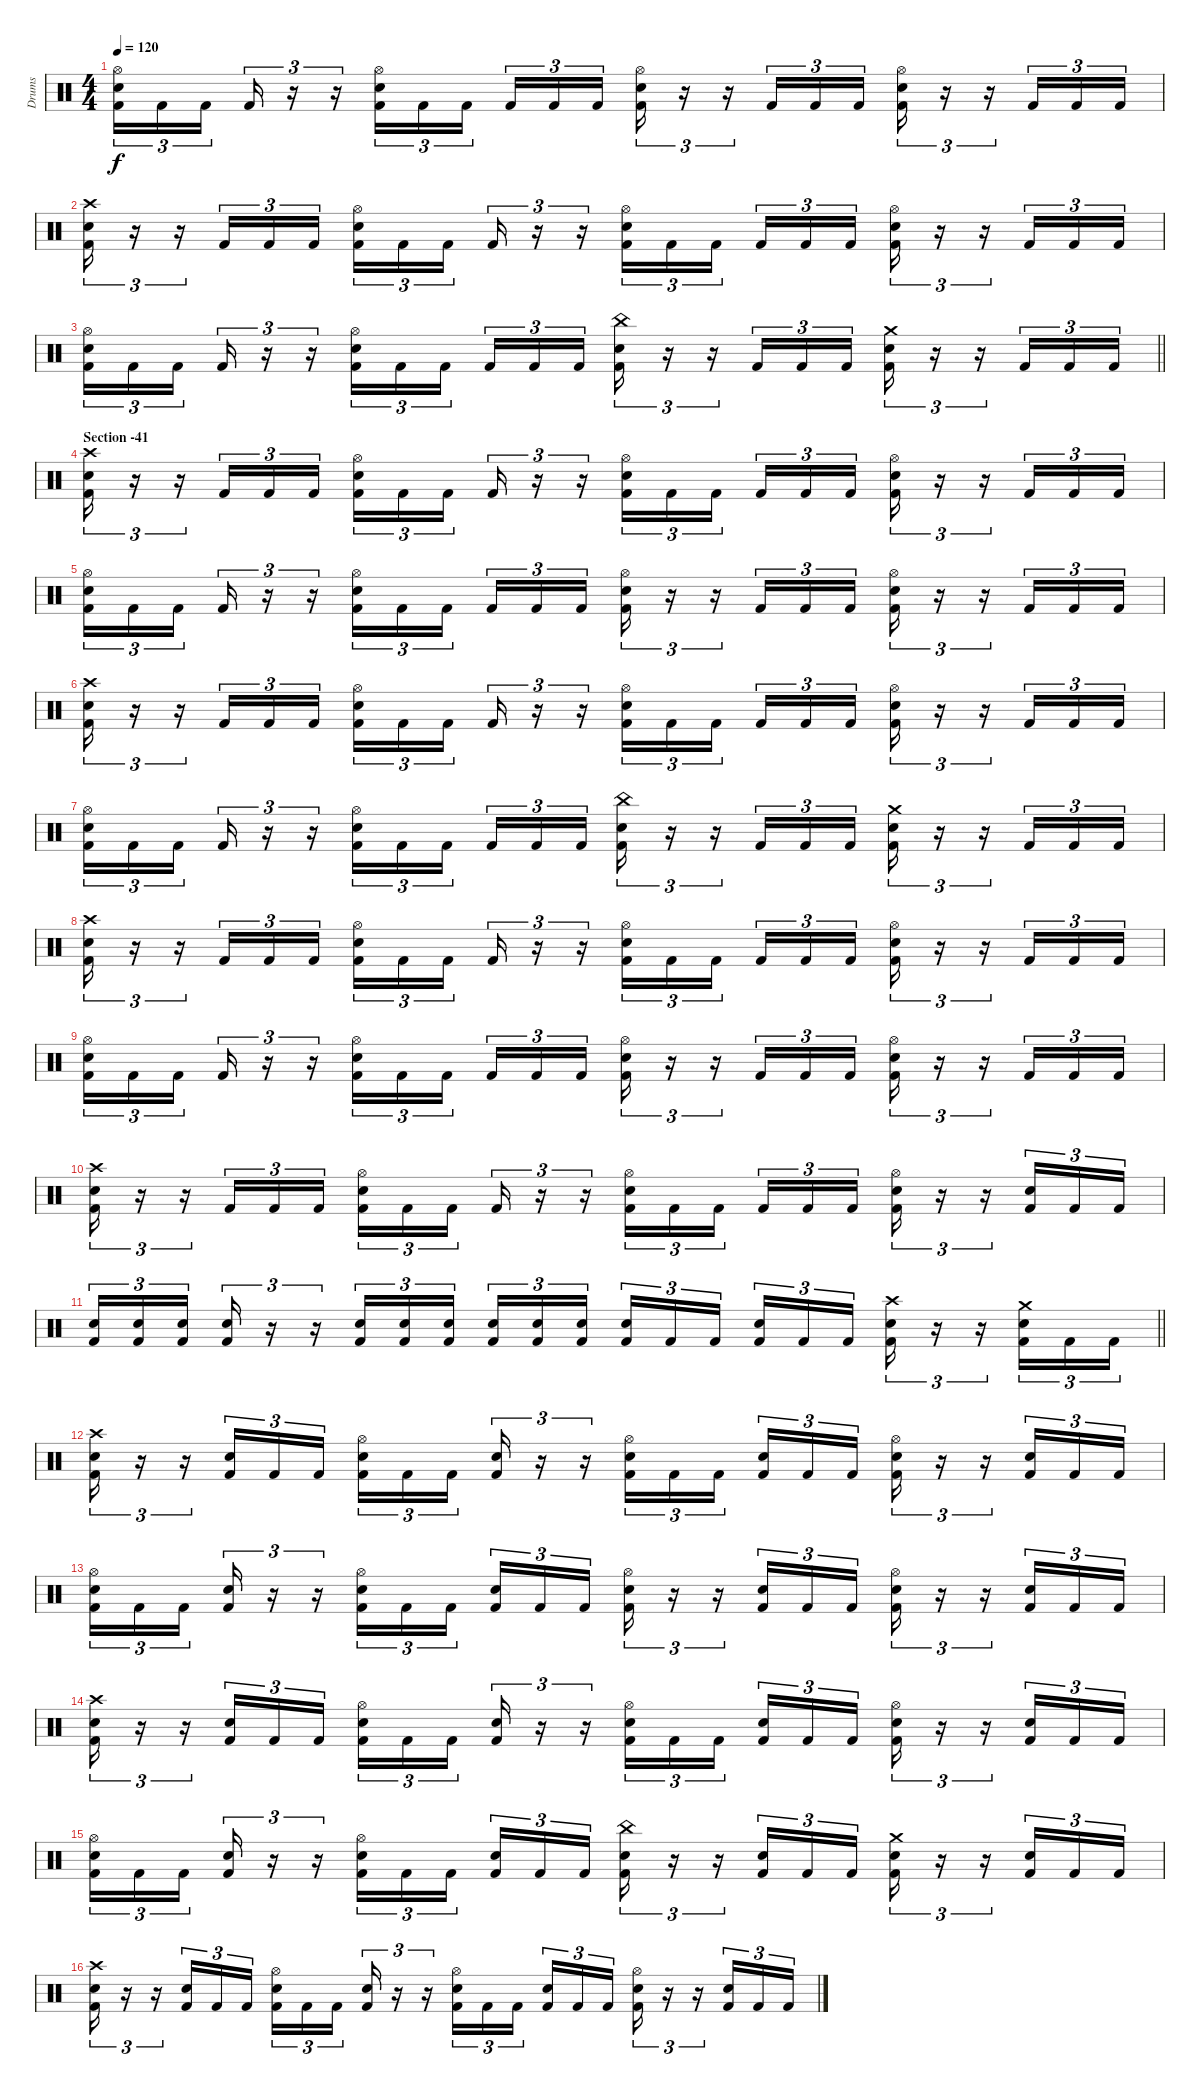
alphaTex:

\track ("Drums" "Drums") {instrument percussion}
\staff {score}
\articulation defaults
\ts (4 4)
\tempo 120
\clef neutral
\ks c
("Hi-Hat (open)" "Snare (hit) 2" "Kick (hit) 2").16{tu (3 2) dy f} "Kick (hit) 2".16{tu (3 2)} "Kick (hit) 2".16{tu (3 2) beam splitsecondary} "Kick (hit) 2".16{tu (3 2)} r.16{tu (3 2)} r.16{tu (3 2)} ("Hi-Hat (open)" "Snare (hit) 2" "Kick (hit) 2").16{tu (3 2)} "Kick (hit) 2".16{tu (3 2)} "Kick (hit) 2".16{tu (3 2) beam splitsecondary} "Kick (hit) 2".16{tu (3 2)} "Kick (hit) 2".16{tu (3 2)} "Kick (hit) 2".16{tu (3 2)} ("Hi-Hat (open)" "Snare (hit) 2" "Kick (hit) 2").16{tu (3 2)} r.16{tu (3 2)} r.16{tu (3 2)} "Kick (hit) 2".16{tu (3 2)} "Kick (hit) 2".16{tu (3 2)} "Kick (hit) 2".16{tu (3 2)} ("Hi-Hat (open)" "Snare (hit) 2" "Kick (hit) 2").16{tu (3 2)} r.16{tu (3 2)} r.16{tu (3 2)} "Kick (hit) 2".16{tu (3 2)} "Kick (hit) 2".16{tu (3 2)} "Kick (hit) 2".16{tu (3 2)} |
("Crash high (hit)" "Snare (hit) 2" "Kick (hit) 2").16{tu (3 2)} r.16{tu (3 2)} r.16{tu (3 2)} "Kick (hit) 2".16{tu (3 2)} "Kick (hit) 2".16{tu (3 2)} "Kick (hit) 2".16{tu (3 2)} ("Hi-Hat (open)" "Snare (hit) 2" "Kick (hit) 2").16{tu (3 2)} "Kick (hit) 2".16{tu (3 2)} "Kick (hit) 2".16{tu (3 2) beam splitsecondary} "Kick (hit) 2".16{tu (3 2)} r.16{tu (3 2)} r.16{tu (3 2)} ("Hi-Hat (open)" "Snare (hit) 2" "Kick (hit) 2").16{tu (3 2)} "Kick (hit) 2".16{tu (3 2)} "Kick (hit) 2".16{tu (3 2) beam splitsecondary} "Kick (hit) 2".16{tu (3 2)} "Kick (hit) 2".16{tu (3 2)} "Kick (hit) 2".16{tu (3 2)} ("Hi-Hat (open)" "Snare (hit) 2" "Kick (hit) 2").16{tu (3 2)} r.16{tu (3 2)} r.16{tu (3 2)} "Kick (hit) 2".16{tu (3 2)} "Kick (hit) 2".16{tu (3 2)} "Kick (hit) 2".16{tu (3 2)} |
\barLineRight lightlight
("Hi-Hat (open)" "Snare (hit) 2" "Kick (hit) 2").16{tu (3 2)} "Kick (hit) 2".16{tu (3 2)} "Kick (hit) 2".16{tu (3 2) beam splitsecondary} "Kick (hit) 2".16{tu (3 2)} r.16{tu (3 2)} r.16{tu (3 2)} ("Hi-Hat (open)" "Snare (hit) 2" "Kick (hit) 2").16{tu (3 2)} "Kick (hit) 2".16{tu (3 2)} "Kick (hit) 2".16{tu (3 2) beam splitsecondary} "Kick (hit) 2".16{tu (3 2)} "Kick (hit) 2".16{tu (3 2)} "Kick (hit) 2".16{tu (3 2)} ("China (hit)" "Snare (hit) 2" "Kick (hit) 2").16{tu (3 2)} r.16{tu (3 2)} r.16{tu (3 2)} "Kick (hit) 2".16{tu (3 2)} "Kick (hit) 2".16{tu (3 2)} "Kick (hit) 2".16{tu (3 2)} ("Crash medium (hit)" "Snare (hit) 2" "Kick (hit) 2").16{tu (3 2)} r.16{tu (3 2)} r.16{tu (3 2)} "Kick (hit) 2".16{tu (3 2)} "Kick (hit) 2".16{tu (3 2)} "Kick (hit) 2".16{tu (3 2)} |
\section ("" "Section -41")
("Crash high (hit)" "Snare (hit) 2" "Kick (hit) 2").16{tu (3 2)} r.16{tu (3 2)} r.16{tu (3 2)} "Kick (hit) 2".16{tu (3 2)} "Kick (hit) 2".16{tu (3 2)} "Kick (hit) 2".16{tu (3 2)} ("Hi-Hat (open)" "Snare (hit) 2" "Kick (hit) 2").16{tu (3 2)} "Kick (hit) 2".16{tu (3 2)} "Kick (hit) 2".16{tu (3 2) beam splitsecondary} "Kick (hit) 2".16{tu (3 2)} r.16{tu (3 2)} r.16{tu (3 2)} ("Hi-Hat (open)" "Snare (hit) 2" "Kick (hit) 2").16{tu (3 2)} "Kick (hit) 2".16{tu (3 2)} "Kick (hit) 2".16{tu (3 2) beam splitsecondary} "Kick (hit) 2".16{tu (3 2)} "Kick (hit) 2".16{tu (3 2)} "Kick (hit) 2".16{tu (3 2)} ("Hi-Hat (open)" "Snare (hit) 2" "Kick (hit) 2").16{tu (3 2)} r.16{tu (3 2)} r.16{tu (3 2)} "Kick (hit) 2".16{tu (3 2)} "Kick (hit) 2".16{tu (3 2)} "Kick (hit) 2".16{tu (3 2)} |
("Hi-Hat (open)" "Snare (hit) 2" "Kick (hit) 2").16{tu (3 2)} "Kick (hit) 2".16{tu (3 2)} "Kick (hit) 2".16{tu (3 2) beam splitsecondary} "Kick (hit) 2".16{tu (3 2)} r.16{tu (3 2)} r.16{tu (3 2)} ("Hi-Hat (open)" "Snare (hit) 2" "Kick (hit) 2").16{tu (3 2)} "Kick (hit) 2".16{tu (3 2)} "Kick (hit) 2".16{tu (3 2) beam splitsecondary} "Kick (hit) 2".16{tu (3 2)} "Kick (hit) 2".16{tu (3 2)} "Kick (hit) 2".16{tu (3 2)} ("Hi-Hat (open)" "Snare (hit) 2" "Kick (hit) 2").16{tu (3 2)} r.16{tu (3 2)} r.16{tu (3 2)} "Kick (hit) 2".16{tu (3 2)} "Kick (hit) 2".16{tu (3 2)} "Kick (hit) 2".16{tu (3 2)} ("Hi-Hat (open)" "Snare (hit) 2" "Kick (hit) 2").16{tu (3 2)} r.16{tu (3 2)} r.16{tu (3 2)} "Kick (hit) 2".16{tu (3 2)} "Kick (hit) 2".16{tu (3 2)} "Kick (hit) 2".16{tu (3 2)} |
("Crash high (hit)" "Snare (hit) 2" "Kick (hit) 2").16{tu (3 2)} r.16{tu (3 2)} r.16{tu (3 2)} "Kick (hit) 2".16{tu (3 2)} "Kick (hit) 2".16{tu (3 2)} "Kick (hit) 2".16{tu (3 2)} ("Hi-Hat (open)" "Snare (hit) 2" "Kick (hit) 2").16{tu (3 2)} "Kick (hit) 2".16{tu (3 2)} "Kick (hit) 2".16{tu (3 2) beam splitsecondary} "Kick (hit) 2".16{tu (3 2)} r.16{tu (3 2)} r.16{tu (3 2)} ("Hi-Hat (open)" "Snare (hit) 2" "Kick (hit) 2").16{tu (3 2)} "Kick (hit) 2".16{tu (3 2)} "Kick (hit) 2".16{tu (3 2) beam splitsecondary} "Kick (hit) 2".16{tu (3 2)} "Kick (hit) 2".16{tu (3 2)} "Kick (hit) 2".16{tu (3 2)} ("Hi-Hat (open)" "Snare (hit) 2" "Kick (hit) 2").16{tu (3 2)} r.16{tu (3 2)} r.16{tu (3 2)} "Kick (hit) 2".16{tu (3 2)} "Kick (hit) 2".16{tu (3 2)} "Kick (hit) 2".16{tu (3 2)} |
("Hi-Hat (open)" "Snare (hit) 2" "Kick (hit) 2").16{tu (3 2)} "Kick (hit) 2".16{tu (3 2)} "Kick (hit) 2".16{tu (3 2) beam splitsecondary} "Kick (hit) 2".16{tu (3 2)} r.16{tu (3 2)} r.16{tu (3 2)} ("Hi-Hat (open)" "Snare (hit) 2" "Kick (hit) 2").16{tu (3 2)} "Kick (hit) 2".16{tu (3 2)} "Kick (hit) 2".16{tu (3 2) beam splitsecondary} "Kick (hit) 2".16{tu (3 2)} "Kick (hit) 2".16{tu (3 2)} "Kick (hit) 2".16{tu (3 2)} ("China (hit)" "Snare (hit) 2" "Kick (hit) 2").16{tu (3 2)} r.16{tu (3 2)} r.16{tu (3 2)} "Kick (hit) 2".16{tu (3 2)} "Kick (hit) 2".16{tu (3 2)} "Kick (hit) 2".16{tu (3 2)} ("Crash medium (hit)" "Snare (hit) 2" "Kick (hit) 2").16{tu (3 2)} r.16{tu (3 2)} r.16{tu (3 2)} "Kick (hit) 2".16{tu (3 2)} "Kick (hit) 2".16{tu (3 2)} "Kick (hit) 2".16{tu (3 2)} |
("Crash high (hit)" "Snare (hit) 2" "Kick (hit) 2").16{tu (3 2)} r.16{tu (3 2)} r.16{tu (3 2)} "Kick (hit) 2".16{tu (3 2)} "Kick (hit) 2".16{tu (3 2)} "Kick (hit) 2".16{tu (3 2)} ("Hi-Hat (open)" "Snare (hit) 2" "Kick (hit) 2").16{tu (3 2)} "Kick (hit) 2".16{tu (3 2)} "Kick (hit) 2".16{tu (3 2) beam splitsecondary} "Kick (hit) 2".16{tu (3 2)} r.16{tu (3 2)} r.16{tu (3 2)} ("Hi-Hat (open)" "Snare (hit) 2" "Kick (hit) 2").16{tu (3 2)} "Kick (hit) 2".16{tu (3 2)} "Kick (hit) 2".16{tu (3 2) beam splitsecondary} "Kick (hit) 2".16{tu (3 2)} "Kick (hit) 2".16{tu (3 2)} "Kick (hit) 2".16{tu (3 2)} ("Hi-Hat (open)" "Snare (hit) 2" "Kick (hit) 2").16{tu (3 2)} r.16{tu (3 2)} r.16{tu (3 2)} "Kick (hit) 2".16{tu (3 2)} "Kick (hit) 2".16{tu (3 2)} "Kick (hit) 2".16{tu (3 2)} |
("Hi-Hat (open)" "Snare (hit) 2" "Kick (hit) 2").16{tu (3 2)} "Kick (hit) 2".16{tu (3 2)} "Kick (hit) 2".16{tu (3 2) beam splitsecondary} "Kick (hit) 2".16{tu (3 2)} r.16{tu (3 2)} r.16{tu (3 2)} ("Hi-Hat (open)" "Snare (hit) 2" "Kick (hit) 2").16{tu (3 2)} "Kick (hit) 2".16{tu (3 2)} "Kick (hit) 2".16{tu (3 2) beam splitsecondary} "Kick (hit) 2".16{tu (3 2)} "Kick (hit) 2".16{tu (3 2)} "Kick (hit) 2".16{tu (3 2)} ("Hi-Hat (open)" "Snare (hit) 2" "Kick (hit) 2").16{tu (3 2)} r.16{tu (3 2)} r.16{tu (3 2)} "Kick (hit) 2".16{tu (3 2)} "Kick (hit) 2".16{tu (3 2)} "Kick (hit) 2".16{tu (3 2)} ("Hi-Hat (open)" "Snare (hit) 2" "Kick (hit) 2").16{tu (3 2)} r.16{tu (3 2)} r.16{tu (3 2)} "Kick (hit) 2".16{tu (3 2)} "Kick (hit) 2".16{tu (3 2)} "Kick (hit) 2".16{tu (3 2)} |
("Crash high (hit)" "Snare (hit) 2" "Kick (hit) 2").16{tu (3 2)} r.16{tu (3 2)} r.16{tu (3 2)} "Kick (hit) 2".16{tu (3 2)} "Kick (hit) 2".16{tu (3 2)} "Kick (hit) 2".16{tu (3 2)} ("Hi-Hat (open)" "Snare (hit) 2" "Kick (hit) 2").16{tu (3 2)} "Kick (hit) 2".16{tu (3 2)} "Kick (hit) 2".16{tu (3 2) beam splitsecondary} "Kick (hit) 2".16{tu (3 2)} r.16{tu (3 2)} r.16{tu (3 2)} ("Hi-Hat (open)" "Snare (hit) 2" "Kick (hit) 2").16{tu (3 2)} "Kick (hit) 2".16{tu (3 2)} "Kick (hit) 2".16{tu (3 2) beam splitsecondary} "Kick (hit) 2".16{tu (3 2)} "Kick (hit) 2".16{tu (3 2)} "Kick (hit) 2".16{tu (3 2)} ("Hi-Hat (open)" "Snare (hit) 2" "Kick (hit) 2").16{tu (3 2)} r.16{tu (3 2)} r.16{tu (3 2)} ("Snare (hit) 2" "Kick (hit) 2").16{tu (3 2)} "Kick (hit) 2".16{tu (3 2)} "Kick (hit) 2".16{tu (3 2)} |
\barLineRight lightlight
("Snare (hit) 2" "Kick (hit) 2").16{tu (3 2)} ("Snare (hit) 2" "Kick (hit) 2").16{tu (3 2)} ("Snare (hit) 2" "Kick (hit) 2").16{tu (3 2) beam splitsecondary} ("Snare (hit) 2" "Kick (hit) 2").16{tu (3 2)} r.16{tu (3 2)} r.16{tu (3 2)} ("Snare (hit) 2" "Kick (hit) 2").16{tu (3 2)} ("Snare (hit) 2" "Kick (hit) 2").16{tu (3 2)} ("Snare (hit) 2" "Kick (hit) 2").16{tu (3 2) beam splitsecondary} ("Snare (hit) 2" "Kick (hit) 2").16{tu (3 2)} ("Snare (hit) 2" "Kick (hit) 2").16{tu (3 2)} ("Snare (hit) 2" "Kick (hit) 2").16{tu (3 2)} ("Snare (hit) 2" "Kick (hit) 2").16{tu (3 2)} "Kick (hit) 2".16{tu (3 2)} "Kick (hit) 2".16{tu (3 2) beam splitsecondary} ("Snare (hit) 2" "Kick (hit) 2").16{tu (3 2)} "Kick (hit) 2".16{tu (3 2)} "Kick (hit) 2".16{tu (3 2)} ("Crash high (hit)" "Snare (hit) 2" "Kick (hit) 2").16{tu (3 2)} r.16{tu (3 2)} r.16{tu (3 2)} ("Crash medium (hit)" "Snare (hit) 2" "Kick (hit) 2").16{tu (3 2)} "Kick (hit) 2".16{tu (3 2)} "Kick (hit) 2".16{tu (3 2)} |
("Crash high (hit)" "Snare (hit) 2" "Kick (hit) 2").16{tu (3 2)} r.16{tu (3 2)} r.16{tu (3 2)} ("Snare (hit) 2" "Kick (hit) 2").16{tu (3 2)} "Kick (hit) 2".16{tu (3 2)} "Kick (hit) 2".16{tu (3 2)} ("Hi-Hat (open)" "Snare (hit) 2" "Kick (hit) 2").16{tu (3 2)} "Kick (hit) 2".16{tu (3 2)} "Kick (hit) 2".16{tu (3 2) beam splitsecondary} ("Snare (hit) 2" "Kick (hit) 2").16{tu (3 2)} r.16{tu (3 2)} r.16{tu (3 2)} ("Hi-Hat (open)" "Snare (hit) 2" "Kick (hit) 2").16{tu (3 2)} "Kick (hit) 2".16{tu (3 2)} "Kick (hit) 2".16{tu (3 2) beam splitsecondary} ("Snare (hit) 2" "Kick (hit) 2").16{tu (3 2)} "Kick (hit) 2".16{tu (3 2)} "Kick (hit) 2".16{tu (3 2)} ("Hi-Hat (open)" "Snare (hit) 2" "Kick (hit) 2").16{tu (3 2)} r.16{tu (3 2)} r.16{tu (3 2)} ("Snare (hit) 2" "Kick (hit) 2").16{tu (3 2)} "Kick (hit) 2".16{tu (3 2)} "Kick (hit) 2".16{tu (3 2)} |
("Hi-Hat (open)" "Snare (hit) 2" "Kick (hit) 2").16{tu (3 2)} "Kick (hit) 2".16{tu (3 2)} "Kick (hit) 2".16{tu (3 2) beam splitsecondary} ("Snare (hit) 2" "Kick (hit) 2").16{tu (3 2)} r.16{tu (3 2)} r.16{tu (3 2)} ("Hi-Hat (open)" "Snare (hit) 2" "Kick (hit) 2").16{tu (3 2)} "Kick (hit) 2".16{tu (3 2)} "Kick (hit) 2".16{tu (3 2) beam splitsecondary} ("Snare (hit) 2" "Kick (hit) 2").16{tu (3 2)} "Kick (hit) 2".16{tu (3 2)} "Kick (hit) 2".16{tu (3 2)} ("Hi-Hat (open)" "Snare (hit) 2" "Kick (hit) 2").16{tu (3 2)} r.16{tu (3 2)} r.16{tu (3 2)} ("Snare (hit) 2" "Kick (hit) 2").16{tu (3 2)} "Kick (hit) 2".16{tu (3 2)} "Kick (hit) 2".16{tu (3 2)} ("Hi-Hat (open)" "Snare (hit) 2" "Kick (hit) 2").16{tu (3 2)} r.16{tu (3 2)} r.16{tu (3 2)} ("Snare (hit) 2" "Kick (hit) 2").16{tu (3 2)} "Kick (hit) 2".16{tu (3 2)} "Kick (hit) 2".16{tu (3 2)} |
("Crash high (hit)" "Snare (hit) 2" "Kick (hit) 2").16{tu (3 2)} r.16{tu (3 2)} r.16{tu (3 2)} ("Snare (hit) 2" "Kick (hit) 2").16{tu (3 2)} "Kick (hit) 2".16{tu (3 2)} "Kick (hit) 2".16{tu (3 2)} ("Hi-Hat (open)" "Snare (hit) 2" "Kick (hit) 2").16{tu (3 2)} "Kick (hit) 2".16{tu (3 2)} "Kick (hit) 2".16{tu (3 2) beam splitsecondary} ("Snare (hit) 2" "Kick (hit) 2").16{tu (3 2)} r.16{tu (3 2)} r.16{tu (3 2)} ("Hi-Hat (open)" "Snare (hit) 2" "Kick (hit) 2").16{tu (3 2)} "Kick (hit) 2".16{tu (3 2)} "Kick (hit) 2".16{tu (3 2) beam splitsecondary} ("Snare (hit) 2" "Kick (hit) 2").16{tu (3 2)} "Kick (hit) 2".16{tu (3 2)} "Kick (hit) 2".16{tu (3 2)} ("Hi-Hat (open)" "Snare (hit) 2" "Kick (hit) 2").16{tu (3 2)} r.16{tu (3 2)} r.16{tu (3 2)} ("Snare (hit) 2" "Kick (hit) 2").16{tu (3 2)} "Kick (hit) 2".16{tu (3 2)} "Kick (hit) 2".16{tu (3 2)} |
("Hi-Hat (open)" "Snare (hit) 2" "Kick (hit) 2").16{tu (3 2)} "Kick (hit) 2".16{tu (3 2)} "Kick (hit) 2".16{tu (3 2) beam splitsecondary} ("Snare (hit) 2" "Kick (hit) 2").16{tu (3 2)} r.16{tu (3 2)} r.16{tu (3 2)} ("Hi-Hat (open)" "Snare (hit) 2" "Kick (hit) 2").16{tu (3 2)} "Kick (hit) 2".16{tu (3 2)} "Kick (hit) 2".16{tu (3 2) beam splitsecondary} ("Snare (hit) 2" "Kick (hit) 2").16{tu (3 2)} "Kick (hit) 2".16{tu (3 2)} "Kick (hit) 2".16{tu (3 2)} ("China (hit)" "Snare (hit) 2" "Kick (hit) 2").16{tu (3 2)} r.16{tu (3 2)} r.16{tu (3 2)} ("Snare (hit) 2" "Kick (hit) 2").16{tu (3 2)} "Kick (hit) 2".16{tu (3 2)} "Kick (hit) 2".16{tu (3 2)} ("Crash medium (hit)" "Snare (hit) 2" "Kick (hit) 2").16{tu (3 2)} r.16{tu (3 2)} r.16{tu (3 2)} ("Snare (hit) 2" "Kick (hit) 2").16{tu (3 2)} "Kick (hit) 2".16{tu (3 2)} "Kick (hit) 2".16{tu (3 2)} |
("Crash high (hit)" "Snare (hit) 2" "Kick (hit) 2").16{tu (3 2)} r.16{tu (3 2)} r.16{tu (3 2)} ("Snare (hit) 2" "Kick (hit) 2").16{tu (3 2)} "Kick (hit) 2".16{tu (3 2)} "Kick (hit) 2".16{tu (3 2)} ("Hi-Hat (open)" "Snare (hit) 2" "Kick (hit) 2").16{tu (3 2)} "Kick (hit) 2".16{tu (3 2)} "Kick (hit) 2".16{tu (3 2) beam splitsecondary} ("Snare (hit) 2" "Kick (hit) 2").16{tu (3 2)} r.16{tu (3 2)} r.16{tu (3 2)} ("Hi-Hat (open)" "Snare (hit) 2" "Kick (hit) 2").16{tu (3 2)} "Kick (hit) 2".16{tu (3 2)} "Kick (hit) 2".16{tu (3 2) beam splitsecondary} ("Snare (hit) 2" "Kick (hit) 2").16{tu (3 2)} "Kick (hit) 2".16{tu (3 2)} "Kick (hit) 2".16{tu (3 2)} ("Hi-Hat (open)" "Snare (hit) 2" "Kick (hit) 2").16{tu (3 2)} r.16{tu (3 2)} r.16{tu (3 2)} ("Snare (hit) 2" "Kick (hit) 2").16{tu (3 2)} "Kick (hit) 2".16{tu (3 2)} "Kick (hit) 2".16{tu (3 2)}
